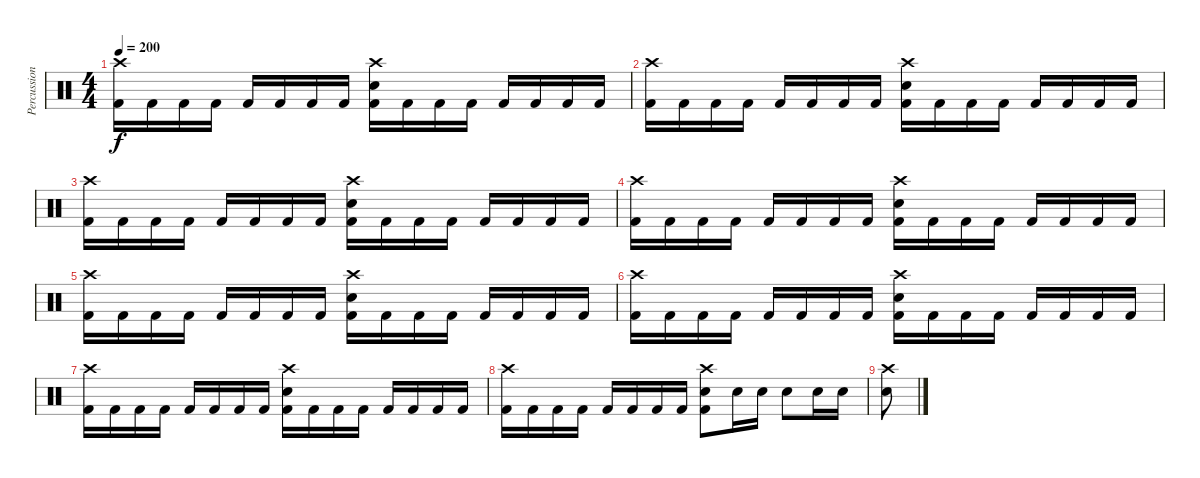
\track ("Percussion" "Percussion") {instrument percussion}
\staff {score}
\articulation defaults
\ts (4 4)
\tempo 200
\clef neutral
\ks c
("Crash high (hit)" "Kick (hit) 2").16{dy f} "Kick (hit) 2".16 "Kick (hit) 2".16 "Kick (hit) 2".16 "Kick (hit) 2".16 "Kick (hit) 2".16 "Kick (hit) 2".16 "Kick (hit) 2".16 ("Crash high (hit)" "Electric Snare (hit)" "Kick (hit) 2").16 "Kick (hit) 2".16 "Kick (hit) 2".16 "Kick (hit) 2".16 "Kick (hit) 2".16 "Kick (hit) 2".16 "Kick (hit) 2".16 "Kick (hit) 2".16 |
("Crash high (hit)" "Kick (hit) 2").16 "Kick (hit) 2".16 "Kick (hit) 2".16 "Kick (hit) 2".16 "Kick (hit) 2".16 "Kick (hit) 2".16 "Kick (hit) 2".16 "Kick (hit) 2".16 ("Crash high (hit)" "Electric Snare (hit)" "Kick (hit) 2").16 "Kick (hit) 2".16 "Kick (hit) 2".16 "Kick (hit) 2".16 "Kick (hit) 2".16 "Kick (hit) 2".16 "Kick (hit) 2".16 "Kick (hit) 2".16 |
("Crash high (hit)" "Kick (hit) 2").16 "Kick (hit) 2".16 "Kick (hit) 2".16 "Kick (hit) 2".16 "Kick (hit) 2".16 "Kick (hit) 2".16 "Kick (hit) 2".16 "Kick (hit) 2".16 ("Crash high (hit)" "Electric Snare (hit)" "Kick (hit) 2").16 "Kick (hit) 2".16 "Kick (hit) 2".16 "Kick (hit) 2".16 "Kick (hit) 2".16 "Kick (hit) 2".16 "Kick (hit) 2".16 "Kick (hit) 2".16 |
("Crash high (hit)" "Kick (hit) 2").16 "Kick (hit) 2".16 "Kick (hit) 2".16 "Kick (hit) 2".16 "Kick (hit) 2".16 "Kick (hit) 2".16 "Kick (hit) 2".16 "Kick (hit) 2".16 ("Crash high (hit)" "Electric Snare (hit)" "Kick (hit) 2").16 "Kick (hit) 2".16 "Kick (hit) 2".16 "Kick (hit) 2".16 "Kick (hit) 2".16 "Kick (hit) 2".16 "Kick (hit) 2".16 "Kick (hit) 2".16 |
("Crash high (hit)" "Kick (hit) 2").16 "Kick (hit) 2".16 "Kick (hit) 2".16 "Kick (hit) 2".16 "Kick (hit) 2".16 "Kick (hit) 2".16 "Kick (hit) 2".16 "Kick (hit) 2".16 ("Crash high (hit)" "Electric Snare (hit)" "Kick (hit) 2").16 "Kick (hit) 2".16 "Kick (hit) 2".16 "Kick (hit) 2".16 "Kick (hit) 2".16 "Kick (hit) 2".16 "Kick (hit) 2".16 "Kick (hit) 2".16 |
("Crash high (hit)" "Kick (hit) 2").16 "Kick (hit) 2".16 "Kick (hit) 2".16 "Kick (hit) 2".16 "Kick (hit) 2".16 "Kick (hit) 2".16 "Kick (hit) 2".16 "Kick (hit) 2".16 ("Crash high (hit)" "Electric Snare (hit)" "Kick (hit) 2").16 "Kick (hit) 2".16 "Kick (hit) 2".16 "Kick (hit) 2".16 "Kick (hit) 2".16 "Kick (hit) 2".16 "Kick (hit) 2".16 "Kick (hit) 2".16 |
("Crash high (hit)" "Kick (hit) 2").16 "Kick (hit) 2".16 "Kick (hit) 2".16 "Kick (hit) 2".16 "Kick (hit) 2".16 "Kick (hit) 2".16 "Kick (hit) 2".16 "Kick (hit) 2".16 ("Crash high (hit)" "Electric Snare (hit)" "Kick (hit) 2").16 "Kick (hit) 2".16 "Kick (hit) 2".16 "Kick (hit) 2".16 "Kick (hit) 2".16 "Kick (hit) 2".16 "Kick (hit) 2".16 "Kick (hit) 2".16 |
("Crash high (hit)" "Kick (hit) 2").16 "Kick (hit) 2".16 "Kick (hit) 2".16 "Kick (hit) 2".16 "Kick (hit) 2".16 "Kick (hit) 2".16 "Kick (hit) 2".16 "Kick (hit) 2".16 ("Crash high (hit)" "Electric Snare (hit)" "Kick (hit) 2").8 "Electric Snare (hit)".16 "Electric Snare (hit)".16 "Electric Snare (hit)".8 "Electric Snare (hit)".16 "Electric Snare (hit)".16 |
("Crash high (hit)" "Electric Snare (hit)").8
